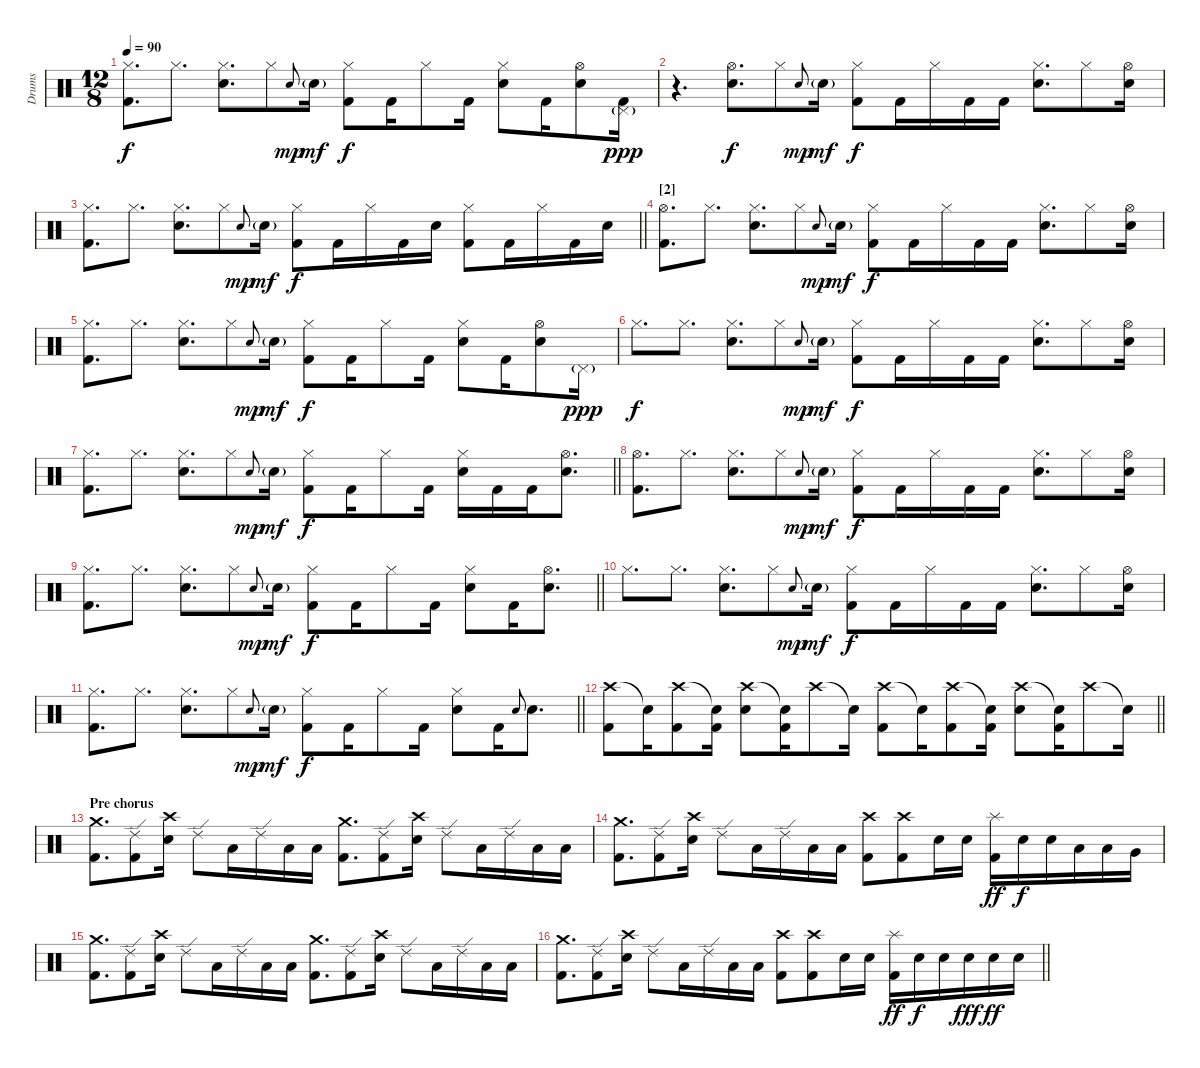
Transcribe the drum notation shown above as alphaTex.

\track ("Drums" "Drums") {instrument percussion}
\staff {score}
\articulation defaults
\ts (12 8)
\tempo 90
\clef neutral
\ks c
("Hi-Hat (closed)" "Kick (hit) 2").8{d dy f} "Hi-Hat (closed)".8{d} ("Hi-Hat (closed)" "Electric Snare (hit)").8{d} "Hi-Hat (closed)".8 "Electric Snare (hit)".8{gr onbeat dy mp} "Electric Snare (hit)"{g}.16{dy mf} ("Hi-Hat (closed)" "Kick (hit) 2").8{dy f} "Kick (hit) 2".16 "Hi-Hat (closed)".8 "Kick (hit) 2".16 ("Hi-Hat (closed)" "Electric Snare (hit)").8 "Kick (hit) 2".16 ("Hi-Hat (open)" "Electric Snare (hit)").8 ("Kick (hit) 2" "Pedal Hi-Hat (hit)"{g}).16{dy ppp} |
r.4{d} ("Hi-Hat (open)" "Electric Snare (hit)").8{d dy f} "Hi-Hat (closed)".8 "Electric Snare (hit)".8{gr onbeat dy mp} "Electric Snare (hit)"{g}.16{dy mf} ("Hi-Hat (closed)" "Kick (hit) 2").8{dy f} "Kick (hit) 2".16 "Hi-Hat (closed)".16 "Kick (hit) 2".16 "Kick (hit) 2".16 ("Hi-Hat (closed)" "Electric Snare (hit)").8{d} "Hi-Hat (closed)".8 ("Hi-Hat (open)" "Electric Snare (hit)").16 |
\barLineRight lightlight
("Hi-Hat (closed)" "Kick (hit) 2").8{d} "Hi-Hat (closed)".8{d} ("Hi-Hat (closed)" "Electric Snare (hit)").8{d} "Hi-Hat (closed)".8 "Electric Snare (hit)".8{gr onbeat dy mp} "Electric Snare (hit)"{g}.16{dy mf} ("Hi-Hat (closed)" "Kick (hit) 2").8{dy f} "Kick (hit) 2".16 "Hi-Hat (closed)".16 "Kick (hit) 2".16 "Electric Snare (hit)".16 ("Hi-Hat (closed)" "Kick (hit) 2").8 "Kick (hit) 2".16 "Hi-Hat (closed)".16 "Kick (hit) 2".16 "Electric Snare (hit)".16 |
\section ("" "[2]")
("Hi-Hat (open)" "Kick (hit) 2").8{d} "Hi-Hat (closed)".8{d} ("Hi-Hat (closed)" "Electric Snare (hit)").8{d} "Hi-Hat (closed)".8 "Electric Snare (hit)".8{gr onbeat dy mp} "Electric Snare (hit)"{g}.16{dy mf} ("Hi-Hat (closed)" "Kick (hit) 2").8{dy f} "Kick (hit) 2".16 "Hi-Hat (closed)".16 "Kick (hit) 2".16 "Kick (hit) 2".16 ("Hi-Hat (closed)" "Electric Snare (hit)").8{d} "Hi-Hat (closed)".8 ("Hi-Hat (open)" "Electric Snare (hit)").16 |
("Hi-Hat (closed)" "Kick (hit) 2").8{d} "Hi-Hat (closed)".8{d} ("Hi-Hat (closed)" "Electric Snare (hit)").8{d} "Hi-Hat (closed)".8 "Electric Snare (hit)".8{gr onbeat dy mp} "Electric Snare (hit)"{g}.16{dy mf} ("Hi-Hat (closed)" "Kick (hit) 2").8{dy f} "Kick (hit) 2".16 "Hi-Hat (closed)".8 "Kick (hit) 2".16 ("Hi-Hat (closed)" "Electric Snare (hit)").8 "Kick (hit) 2".16 ("Hi-Hat (open)" "Electric Snare (hit)").8 "Pedal Hi-Hat (hit)"{g}.16{dy ppp} |
"Hi-Hat (closed)".8{d dy f} "Hi-Hat (closed)".8{d} ("Hi-Hat (closed)" "Electric Snare (hit)").8{d} "Hi-Hat (closed)".8 "Electric Snare (hit)".8{gr onbeat dy mp} "Electric Snare (hit)"{g}.16{dy mf} ("Hi-Hat (closed)" "Kick (hit) 2").8{dy f} "Kick (hit) 2".16 "Hi-Hat (closed)".16 "Kick (hit) 2".16 "Kick (hit) 2".16 ("Hi-Hat (closed)" "Electric Snare (hit)").8{d} "Hi-Hat (closed)".8 ("Hi-Hat (open)" "Electric Snare (hit)").16 |
\barLineRight lightlight
("Hi-Hat (closed)" "Kick (hit) 2").8{d} "Hi-Hat (closed)".8{d} ("Hi-Hat (closed)" "Electric Snare (hit)").8{d} "Hi-Hat (closed)".8 "Electric Snare (hit)".8{gr onbeat dy mp} "Electric Snare (hit)"{g}.16{dy mf} ("Hi-Hat (closed)" "Kick (hit) 2").8{dy f} "Kick (hit) 2".16 "Hi-Hat (closed)".8 "Kick (hit) 2".16 ("Hi-Hat (closed)" "Electric Snare (hit)").16 "Kick (hit) 2".16 "Kick (hit) 2".16 ("Hi-Hat (open)" "Electric Snare (hit)").8{d} |
\section ("" "")
("Hi-Hat (open)" "Kick (hit) 2").8{d} "Hi-Hat (closed)".8{d} ("Hi-Hat (closed)" "Electric Snare (hit)").8{d} "Hi-Hat (closed)".8 "Electric Snare (hit)".8{gr onbeat dy mp} "Electric Snare (hit)"{g}.16{dy mf} ("Hi-Hat (closed)" "Kick (hit) 2").8{dy f} "Kick (hit) 2".16 "Hi-Hat (closed)".16 "Kick (hit) 2".16 "Kick (hit) 2".16 ("Hi-Hat (closed)" "Electric Snare (hit)").8{d} "Hi-Hat (closed)".8 ("Hi-Hat (open)" "Electric Snare (hit)").16 |
\barLineRight lightlight
("Hi-Hat (closed)" "Kick (hit) 2").8{d} "Hi-Hat (closed)".8{d} ("Hi-Hat (closed)" "Electric Snare (hit)").8{d} "Hi-Hat (closed)".8 "Electric Snare (hit)".8{gr onbeat dy mp} "Electric Snare (hit)"{g}.16{dy mf} ("Hi-Hat (closed)" "Kick (hit) 2").8{dy f} "Kick (hit) 2".16 "Hi-Hat (closed)".8 "Kick (hit) 2".16 ("Hi-Hat (closed)" "Electric Snare (hit)").8 "Kick (hit) 2".16 ("Hi-Hat (open)" "Electric Snare (hit)").8{d} |
"Hi-Hat (closed)".8{d} "Hi-Hat (closed)".8{d} ("Hi-Hat (closed)" "Electric Snare (hit)").8{d} "Hi-Hat (closed)".8 "Electric Snare (hit)".8{gr onbeat dy mp} "Electric Snare (hit)"{g}.16{dy mf} ("Hi-Hat (closed)" "Kick (hit) 2").8{dy f} "Kick (hit) 2".16 "Hi-Hat (closed)".16 "Kick (hit) 2".16 "Kick (hit) 2".16 ("Hi-Hat (closed)" "Electric Snare (hit)").8{d} "Hi-Hat (closed)".8 ("Hi-Hat (open)" "Electric Snare (hit)").16 |
\barLineRight lightlight
("Hi-Hat (closed)" "Kick (hit) 2").8{d} "Hi-Hat (closed)".8{d} ("Hi-Hat (closed)" "Electric Snare (hit)").8{d} "Hi-Hat (closed)".8 "Electric Snare (hit)".8{gr onbeat dy mp} "Electric Snare (hit)"{g}.16{dy mf} ("Hi-Hat (closed)" "Kick (hit) 2").8{dy f} "Kick (hit) 2".16 "Hi-Hat (closed)".8 "Kick (hit) 2".16 ("Hi-Hat (closed)" "Electric Snare (hit)").8 "Kick (hit) 2".16 "Electric Snare (hit)".8{gr onbeat} "Electric Snare (hit)".8{d} |
\section ("" "")
\barLineRight lightlight
("Crash high (hit)" "Kick (hit) 2").8 "Snare (hit)"{t}.16 ("Crash high (hit)" "Kick (hit) 2").8 ("Snare (hit)"{t} "Kick (hit) 2").16 ("Crash high (hit)" "Electric Snare (hit)").8 ("Snare (hit)"{t} "Kick (hit) 2").16 "Crash high (hit)".8 "Snare (hit)"{t}.16 ("Crash high (hit)" "Kick (hit) 2").8 "Snare (hit)"{t}.16 ("Crash high (hit)" "Kick (hit) 2").8 ("Snare (hit)"{t} "Kick (hit) 2").16 ("Crash high (hit)" "Electric Snare (hit)").8 ("Snare (hit)"{t} "Kick (hit) 2").16 "Crash high (hit)".8 "Snare (hit)"{t}.16 |
\section ("" "Pre chorus")
("Crash medium (hit)" "Kick (hit) 2").8{d} ("Ride (edge) 2" "Kick (hit) 2").8 ("Crash high (hit)" "Electric Snare (hit)").16 "Ride (edge) 2".8 "Low Tom (hit)".16 "Ride (edge) 2".16 "Low Floor Tom (hit)".16 "Low Floor Tom (hit)".16 ("Crash medium (hit)" "Kick (hit) 2").8{d} ("Ride (edge) 2" "Kick (hit) 2").8 ("Crash high (hit)" "Electric Snare (hit)").16 "Ride (edge) 2".8 "Low Tom (hit)".16 "Ride (edge) 2".16 "Low Floor Tom (hit)".16 "Low Floor Tom (hit)".16 |
("Crash medium (hit)" "Kick (hit) 2").8{d} ("Ride (edge) 2" "Kick (hit) 2").8 ("Crash high (hit)" "Electric Snare (hit)").16 "Ride (edge) 2".8 "Low Tom (hit)".16 "Ride (edge) 2".16 "Low Floor Tom (hit)".16 "Low Floor Tom (hit)".16 ("Crash high (hit)" "Kick (hit) 2").8 ("Crash high (hit)" "Kick (hit) 2").8 "Electric Snare (hit)".16 "Electric Snare (hit)".16 ("Splash (hit)" "Kick (hit) 2").16{dy ff} "Electric Snare (hit)".16{dy f} "Electric Snare (hit)".16 "Low Tom (hit)".16 "Low Tom (hit)".16 "Very Low Tom (hit)".16 |
("Crash medium (hit)" "Kick (hit) 2").8{d} ("Ride (edge) 2" "Kick (hit) 2").8 ("Crash high (hit)" "Electric Snare (hit)").16 "Ride (edge) 2".8 "Low Tom (hit)".16 "Ride (edge) 2".16 "Low Floor Tom (hit)".16 "Low Floor Tom (hit)".16 ("Crash medium (hit)" "Kick (hit) 2").8{d} ("Ride (edge) 2" "Kick (hit) 2").8 ("Crash high (hit)" "Electric Snare (hit)").16 "Ride (edge) 2".8 "Low Tom (hit)".16 "Ride (edge) 2".16 "Low Floor Tom (hit)".16 "Low Floor Tom (hit)".16 |
\barLineRight lightlight
("Crash medium (hit)" "Kick (hit) 2").8{d} ("Ride (edge) 2" "Kick (hit) 2").8 ("Crash high (hit)" "Electric Snare (hit)").16 "Ride (edge) 2".8 "Low Tom (hit)".16 "Ride (edge) 2".16 "Low Floor Tom (hit)".16 "Low Floor Tom (hit)".16 ("Crash high (hit)" "Kick (hit) 2").8 ("Crash high (hit)" "Kick (hit) 2").8 "Electric Snare (hit)".16 "Electric Snare (hit)".16 ("Splash (hit)" "Kick (hit) 2").16{dy ff} "Electric Snare (hit)".16{dy f} "Electric Snare (hit)".16 "Electric Snare (hit)".16{dy fff} "Electric Snare (hit)".16{dy ff} "Electric Snare (hit)".16
